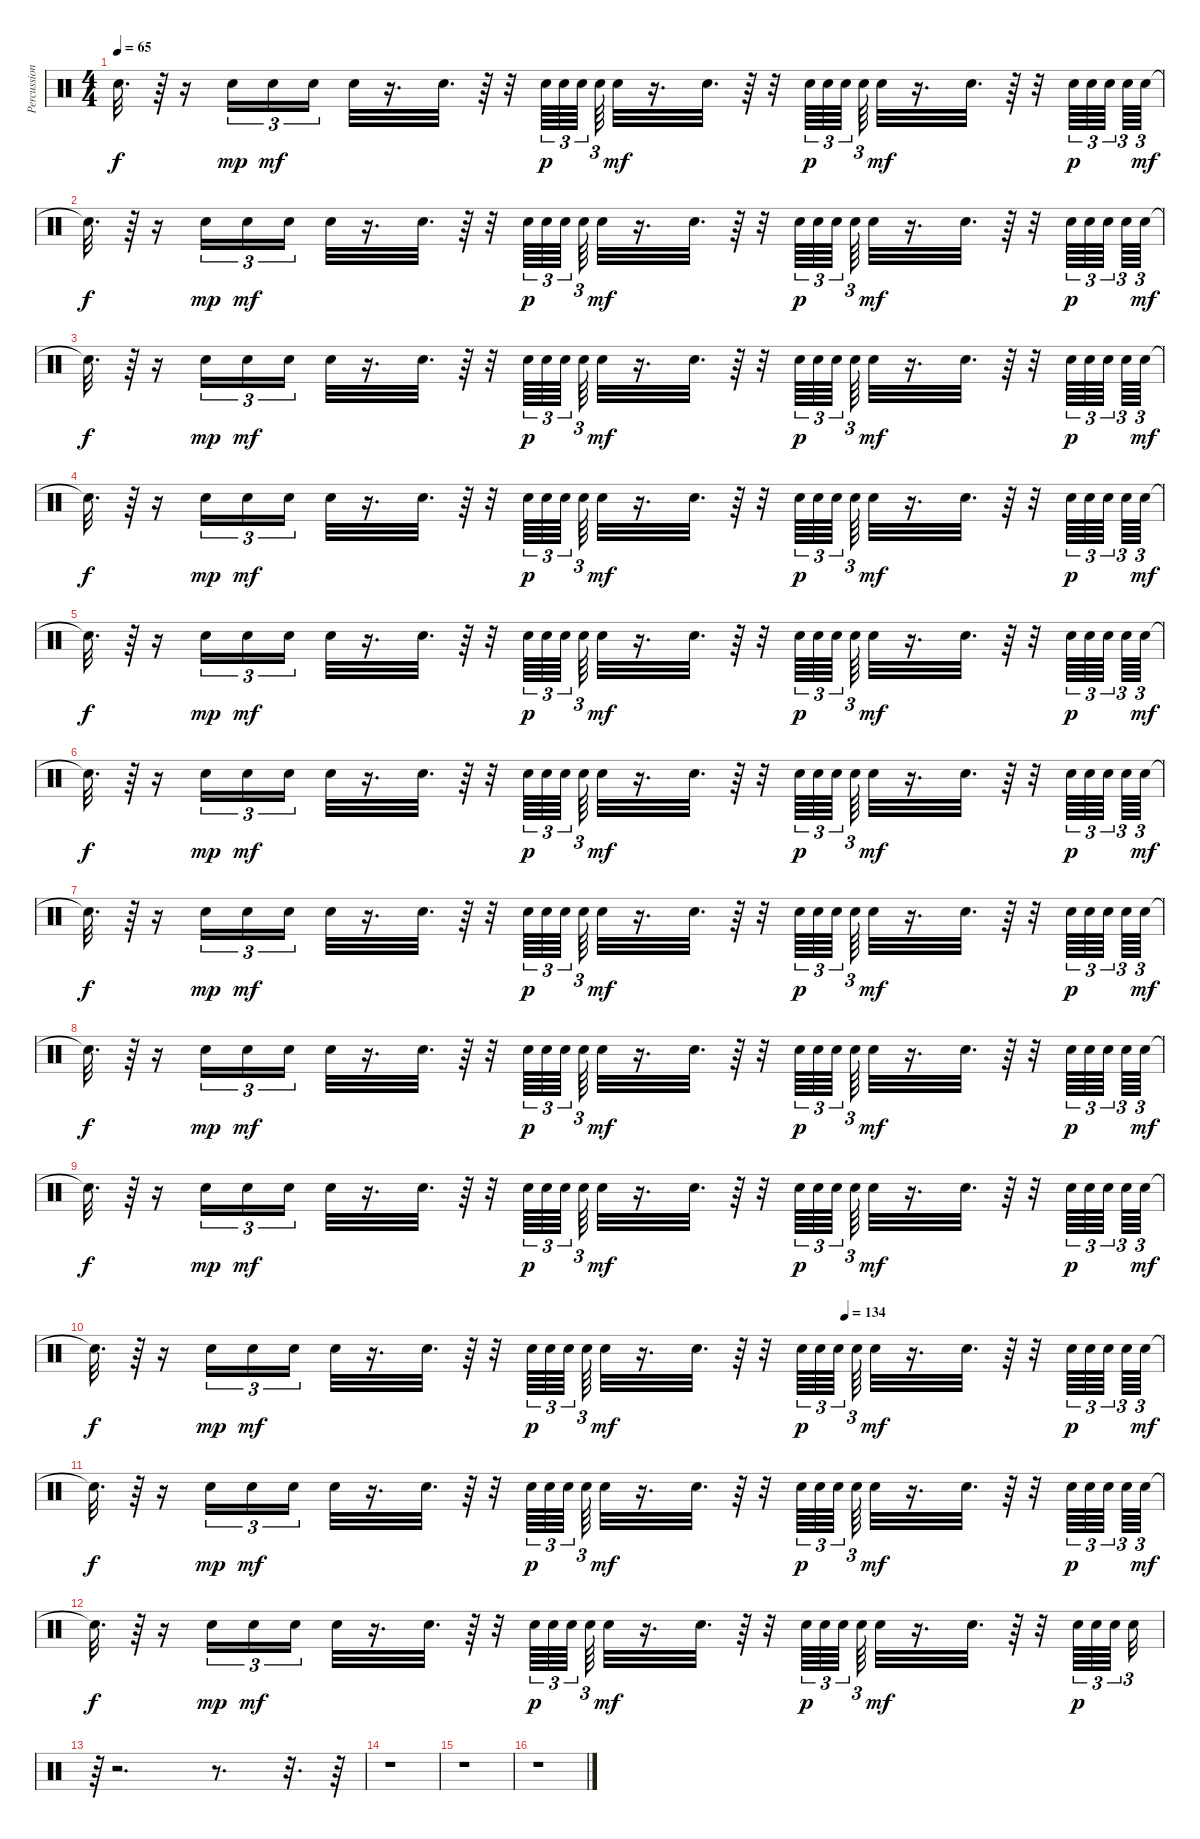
\track ("Percussioni" "Percussion") {instrument percussion}
\staff {score}
\articulation defaults
\ts (4 4)
\tempo 65
\clef neutral
\ks c "Snare (hit)"{t}.32{d dy f}
r.64 r.16 "Snare (hit) 2".16{tu (3 2) dy mp} "Snare (hit) 2".16{tu (3 2) dy mf} "Snare (hit) 2".16{tu (3 2)} "Snare (hit) 2".32 r.16{d} "Snare (hit) 2".32{d} r.64 r.32 "Snare (hit) 2".64{tu (3 2) dy p} "Snare (hit) 2".64{tu (3 2)} "Snare (hit) 2".64{tu (3 2)} "Snare (hit) 2".64{tu (3 2)} "Snare (hit) 2".32{dy mf} r.16{d} "Snare (hit) 2".32{d} r.64 r.32 "Snare (hit) 2".64{tu (3 2) dy p} "Snare (hit) 2".64{tu (3 2)} "Snare (hit) 2".64{tu (3 2) beam splitsecondary} "Snare (hit) 2".64{tu (3 2)} "Snare (hit) 2".32{dy mf} r.16{d} "Snare (hit) 2".32{d} r.64 r.32 "Snare (hit) 2".64{tu (3 2) dy p} "Snare (hit) 2".64{tu (3 2)} "Snare (hit) 2".64{tu (3 2) beam splitsecondary} "Snare (hit) 2".64{tu (3 2)} "Snare (hit) 2".64{tu (3 2) dy mf} |
"Snare (hit)"{t}.32{d dy f} r.64 r.16 "Snare (hit) 2".16{tu (3 2) dy mp} "Snare (hit) 2".16{tu (3 2) dy mf} "Snare (hit) 2".16{tu (3 2)} "Snare (hit) 2".32 r.16{d} "Snare (hit) 2".32{d} r.64 r.32 "Snare (hit) 2".64{tu (3 2) dy p} "Snare (hit) 2".64{tu (3 2)} "Snare (hit) 2".64{tu (3 2)} "Snare (hit) 2".64{tu (3 2)} "Snare (hit) 2".32{dy mf} r.16{d} "Snare (hit) 2".32{d} r.64 r.32 "Snare (hit) 2".64{tu (3 2) dy p} "Snare (hit) 2".64{tu (3 2)} "Snare (hit) 2".64{tu (3 2) beam splitsecondary} "Snare (hit) 2".64{tu (3 2)} "Snare (hit) 2".32{dy mf} r.16{d} "Snare (hit) 2".32{d} r.64 r.32 "Snare (hit) 2".64{tu (3 2) dy p} "Snare (hit) 2".64{tu (3 2)} "Snare (hit) 2".64{tu (3 2) beam splitsecondary} "Snare (hit) 2".64{tu (3 2)} "Snare (hit) 2".64{tu (3 2) dy mf} |
"Snare (hit)"{t}.32{d dy f} r.64 r.16 "Snare (hit) 2".16{tu (3 2) dy mp} "Snare (hit) 2".16{tu (3 2) dy mf} "Snare (hit) 2".16{tu (3 2)} "Snare (hit) 2".32 r.16{d} "Snare (hit) 2".32{d} r.64 r.32 "Snare (hit) 2".64{tu (3 2) dy p} "Snare (hit) 2".64{tu (3 2)} "Snare (hit) 2".64{tu (3 2)} "Snare (hit) 2".64{tu (3 2)} "Snare (hit) 2".32{dy mf} r.16{d} "Snare (hit) 2".32{d} r.64 r.32 "Snare (hit) 2".64{tu (3 2) dy p} "Snare (hit) 2".64{tu (3 2)} "Snare (hit) 2".64{tu (3 2) beam splitsecondary} "Snare (hit) 2".64{tu (3 2)} "Snare (hit) 2".32{dy mf} r.16{d} "Snare (hit) 2".32{d} r.64 r.32 "Snare (hit) 2".64{tu (3 2) dy p} "Snare (hit) 2".64{tu (3 2)} "Snare (hit) 2".64{tu (3 2) beam splitsecondary} "Snare (hit) 2".64{tu (3 2)} "Snare (hit) 2".64{tu (3 2) dy mf} |
"Snare (hit)"{t}.32{d dy f} r.64 r.16 "Snare (hit) 2".16{tu (3 2) dy mp} "Snare (hit) 2".16{tu (3 2) dy mf} "Snare (hit) 2".16{tu (3 2)} "Snare (hit) 2".32 r.16{d} "Snare (hit) 2".32{d} r.64 r.32 "Snare (hit) 2".64{tu (3 2) dy p} "Snare (hit) 2".64{tu (3 2)} "Snare (hit) 2".64{tu (3 2)} "Snare (hit) 2".64{tu (3 2)} "Snare (hit) 2".32{dy mf} r.16{d} "Snare (hit) 2".32{d} r.64 r.32 "Snare (hit) 2".64{tu (3 2) dy p} "Snare (hit) 2".64{tu (3 2)} "Snare (hit) 2".64{tu (3 2) beam splitsecondary} "Snare (hit) 2".64{tu (3 2)} "Snare (hit) 2".32{dy mf} r.16{d} "Snare (hit) 2".32{d} r.64 r.32 "Snare (hit) 2".64{tu (3 2) dy p} "Snare (hit) 2".64{tu (3 2)} "Snare (hit) 2".64{tu (3 2) beam splitsecondary} "Snare (hit) 2".64{tu (3 2)} "Snare (hit) 2".64{tu (3 2) dy mf} |
"Snare (hit)"{t}.32{d dy f} r.64 r.16 "Snare (hit) 2".16{tu (3 2) dy mp} "Snare (hit) 2".16{tu (3 2) dy mf} "Snare (hit) 2".16{tu (3 2)} "Snare (hit) 2".32 r.16{d} "Snare (hit) 2".32{d} r.64 r.32 "Snare (hit) 2".64{tu (3 2) dy p} "Snare (hit) 2".64{tu (3 2)} "Snare (hit) 2".64{tu (3 2)} "Snare (hit) 2".64{tu (3 2)} "Snare (hit) 2".32{dy mf} r.16{d} "Snare (hit) 2".32{d} r.64 r.32 "Snare (hit) 2".64{tu (3 2) dy p} "Snare (hit) 2".64{tu (3 2)} "Snare (hit) 2".64{tu (3 2) beam splitsecondary} "Snare (hit) 2".64{tu (3 2)} "Snare (hit) 2".32{dy mf} r.16{d} "Snare (hit) 2".32{d} r.64 r.32 "Snare (hit) 2".64{tu (3 2) dy p} "Snare (hit) 2".64{tu (3 2)} "Snare (hit) 2".64{tu (3 2) beam splitsecondary} "Snare (hit) 2".64{tu (3 2)} "Snare (hit) 2".64{tu (3 2) dy mf} |
"Snare (hit)"{t}.32{d dy f} r.64 r.16 "Snare (hit) 2".16{tu (3 2) dy mp} "Snare (hit) 2".16{tu (3 2) dy mf} "Snare (hit) 2".16{tu (3 2)} "Snare (hit) 2".32 r.16{d} "Snare (hit) 2".32{d} r.64 r.32 "Snare (hit) 2".64{tu (3 2) dy p} "Snare (hit) 2".64{tu (3 2)} "Snare (hit) 2".64{tu (3 2)} "Snare (hit) 2".64{tu (3 2)} "Snare (hit) 2".32{dy mf} r.16{d} "Snare (hit) 2".32{d} r.64 r.32 "Snare (hit) 2".64{tu (3 2) dy p} "Snare (hit) 2".64{tu (3 2)} "Snare (hit) 2".64{tu (3 2) beam splitsecondary} "Snare (hit) 2".64{tu (3 2)} "Snare (hit) 2".32{dy mf} r.16{d} "Snare (hit) 2".32{d} r.64 r.32 "Snare (hit) 2".64{tu (3 2) dy p} "Snare (hit) 2".64{tu (3 2)} "Snare (hit) 2".64{tu (3 2) beam splitsecondary} "Snare (hit) 2".64{tu (3 2)} "Snare (hit) 2".64{tu (3 2) dy mf} |
"Snare (hit)"{t}.32{d dy f} r.64 r.16 "Snare (hit) 2".16{tu (3 2) dy mp} "Snare (hit) 2".16{tu (3 2) dy mf} "Snare (hit) 2".16{tu (3 2)} "Snare (hit) 2".32 r.16{d} "Snare (hit) 2".32{d} r.64 r.32 "Snare (hit) 2".64{tu (3 2) dy p} "Snare (hit) 2".64{tu (3 2)} "Snare (hit) 2".64{tu (3 2)} "Snare (hit) 2".64{tu (3 2)} "Snare (hit) 2".32{dy mf} r.16{d} "Snare (hit) 2".32{d} r.64 r.32 "Snare (hit) 2".64{tu (3 2) dy p} "Snare (hit) 2".64{tu (3 2)} "Snare (hit) 2".64{tu (3 2) beam splitsecondary} "Snare (hit) 2".64{tu (3 2)} "Snare (hit) 2".32{dy mf} r.16{d} "Snare (hit) 2".32{d} r.64 r.32 "Snare (hit) 2".64{tu (3 2) dy p} "Snare (hit) 2".64{tu (3 2)} "Snare (hit) 2".64{tu (3 2) beam splitsecondary} "Snare (hit) 2".64{tu (3 2)} "Snare (hit) 2".64{tu (3 2) dy mf} |
"Snare (hit)"{t}.32{d dy f} r.64 r.16 "Snare (hit) 2".16{tu (3 2) dy mp} "Snare (hit) 2".16{tu (3 2) dy mf} "Snare (hit) 2".16{tu (3 2)} "Snare (hit) 2".32 r.16{d} "Snare (hit) 2".32{d} r.64 r.32 "Snare (hit) 2".64{tu (3 2) dy p} "Snare (hit) 2".64{tu (3 2)} "Snare (hit) 2".64{tu (3 2)} "Snare (hit) 2".64{tu (3 2)} "Snare (hit) 2".32{dy mf} r.16{d} "Snare (hit) 2".32{d} r.64 r.32 "Snare (hit) 2".64{tu (3 2) dy p} "Snare (hit) 2".64{tu (3 2)} "Snare (hit) 2".64{tu (3 2) beam splitsecondary} "Snare (hit) 2".64{tu (3 2)} "Snare (hit) 2".32{dy mf} r.16{d} "Snare (hit) 2".32{d} r.64 r.32 "Snare (hit) 2".64{tu (3 2) dy p} "Snare (hit) 2".64{tu (3 2)} "Snare (hit) 2".64{tu (3 2) beam splitsecondary} "Snare (hit) 2".64{tu (3 2)} "Snare (hit) 2".64{tu (3 2) dy mf} |
"Snare (hit)"{t}.32{d dy f} r.64 r.16 "Snare (hit) 2".16{tu (3 2) dy mp} "Snare (hit) 2".16{tu (3 2) dy mf} "Snare (hit) 2".16{tu (3 2)} "Snare (hit) 2".32 r.16{d} "Snare (hit) 2".32{d} r.64 r.32 "Snare (hit) 2".64{tu (3 2) dy p} "Snare (hit) 2".64{tu (3 2)} "Snare (hit) 2".64{tu (3 2)} "Snare (hit) 2".64{tu (3 2)} "Snare (hit) 2".32{dy mf} r.16{d} "Snare (hit) 2".32{d} r.64 r.32 "Snare (hit) 2".64{tu (3 2) dy p} "Snare (hit) 2".64{tu (3 2)} "Snare (hit) 2".64{tu (3 2) beam splitsecondary} "Snare (hit) 2".64{tu (3 2)} "Snare (hit) 2".32{dy mf} r.16{d} "Snare (hit) 2".32{d} r.64 r.32 "Snare (hit) 2".64{tu (3 2) dy p} "Snare (hit) 2".64{tu (3 2)} "Snare (hit) 2".64{tu (3 2) beam splitsecondary} "Snare (hit) 2".64{tu (3 2)} "Snare (hit) 2".64{tu (3 2) dy mf} |
\tempo (134 0.703125)
"Snare (hit)"{t}.32{d dy f} r.64 r.16 "Snare (hit) 2".16{tu (3 2) dy mp} "Snare (hit) 2".16{tu (3 2) dy mf} "Snare (hit) 2".16{tu (3 2)} "Snare (hit) 2".32 r.16{d} "Snare (hit) 2".32{d} r.64 r.32 "Snare (hit) 2".64{tu (3 2) dy p} "Snare (hit) 2".64{tu (3 2)} "Snare (hit) 2".64{tu (3 2)} "Snare (hit) 2".64{tu (3 2)} "Snare (hit) 2".32{dy mf} r.16{d} "Snare (hit) 2".32{d} r.64 r.32 "Snare (hit) 2".64{tu (3 2) dy p} "Snare (hit) 2".64{tu (3 2)} "Snare (hit) 2".64{tu (3 2) beam splitsecondary} "Snare (hit) 2".64{tu (3 2)} "Snare (hit) 2".32{dy mf} r.16{d} "Snare (hit) 2".32{d} r.64 r.32 "Snare (hit) 2".64{tu (3 2) dy p} "Snare (hit) 2".64{tu (3 2)} "Snare (hit) 2".64{tu (3 2) beam splitsecondary} "Snare (hit) 2".64{tu (3 2)} "Snare (hit) 2".64{tu (3 2) dy mf} |
"Snare (hit)"{t}.32{d dy f} r.64 r.16 "Snare (hit) 2".16{tu (3 2) dy mp} "Snare (hit) 2".16{tu (3 2) dy mf} "Snare (hit) 2".16{tu (3 2)} "Snare (hit) 2".32 r.16{d} "Snare (hit) 2".32{d} r.64 r.32 "Snare (hit) 2".64{tu (3 2) dy p} "Snare (hit) 2".64{tu (3 2)} "Snare (hit) 2".64{tu (3 2)} "Snare (hit) 2".64{tu (3 2)} "Snare (hit) 2".32{dy mf} r.16{d} "Snare (hit) 2".32{d} r.64 r.32 "Snare (hit) 2".64{tu (3 2) dy p} "Snare (hit) 2".64{tu (3 2)} "Snare (hit) 2".64{tu (3 2) beam splitsecondary} "Snare (hit) 2".64{tu (3 2)} "Snare (hit) 2".32{dy mf} r.16{d} "Snare (hit) 2".32{d} r.64 r.32 "Snare (hit) 2".64{tu (3 2) dy p} "Snare (hit) 2".64{tu (3 2)} "Snare (hit) 2".64{tu (3 2) beam splitsecondary} "Snare (hit) 2".64{tu (3 2)} "Snare (hit) 2".64{tu (3 2) dy mf} |
"Snare (hit)"{t}.32{d dy f} r.64 r.16 "Snare (hit) 2".16{tu (3 2) dy mp} "Snare (hit) 2".16{tu (3 2) dy mf} "Snare (hit) 2".16{tu (3 2)} "Snare (hit) 2".32 r.16{d} "Snare (hit) 2".32{d} r.64 r.32 "Snare (hit) 2".64{tu (3 2) dy p} "Snare (hit) 2".64{tu (3 2)} "Snare (hit) 2".64{tu (3 2)} "Snare (hit) 2".64{tu (3 2)} "Snare (hit) 2".32{dy mf} r.16{d} "Snare (hit) 2".32{d} r.64 r.32 "Snare (hit) 2".64{tu (3 2) dy p} "Snare (hit) 2".64{tu (3 2)} "Snare (hit) 2".64{tu (3 2) beam splitsecondary} "Snare (hit) 2".64{tu (3 2)} "Snare (hit) 2".32{dy mf} r.16{d} "Snare (hit) 2".32{d} r.64 r.32 "Snare (hit) 2".64{tu (3 2) dy p} "Snare (hit) 2".64{tu (3 2)} "Snare (hit) 2".64{tu (3 2) beam splitsecondary} "Snare (hit) 2".32{tu (3 2)} |
r.64{tu (3 2)} r.2{d} r.8{d} r.32{d} r.64 |
r.1 |
r.1 |
r.1
